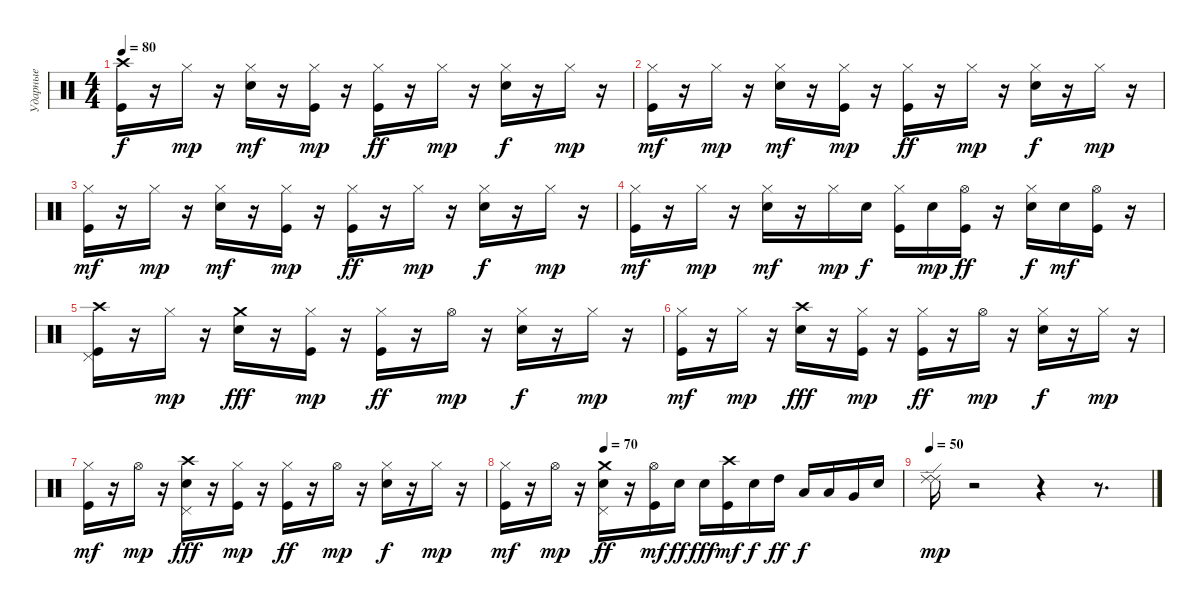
\track ("Ударные" "Ударные") {instrument percussion}
\staff {score}
\articulation defaults
\ts (4 4)
\tempo 80
\clef neutral
\ks c
("Crash high (hit)" "Kick (hit)").16{dy f} r.16 "Hi-Hat (closed)".16{dy mp} r.16 ("Electric Snare (hit)" "Hi-Hat (closed)").16{dy mf} r.16 ("Kick (hit)" "Hi-Hat (closed)").16{dy mp} r.16 ("Hi-Hat (closed)" "Kick (hit)").16{dy ff} r.16 "Hi-Hat (closed)".16{dy mp} r.16 ("Electric Snare (hit)" "Hi-Hat (closed)").16{dy f} r.16 "Hi-Hat (closed)".16{dy mp} r.16 |
("Hi-Hat (closed)" "Kick (hit)").16{dy mf} r.16 "Hi-Hat (closed)".16{dy mp} r.16 ("Electric Snare (hit)" "Hi-Hat (closed)").16{dy mf} r.16 ("Kick (hit)" "Hi-Hat (closed)").16{dy mp} r.16 ("Hi-Hat (closed)" "Kick (hit)").16{dy ff} r.16 "Hi-Hat (closed)".16{dy mp} r.16 ("Electric Snare (hit)" "Hi-Hat (closed)").16{dy f} r.16 "Hi-Hat (closed)".16{dy mp} r.16 |
("Hi-Hat (closed)" "Kick (hit)").16{dy mf} r.16 "Hi-Hat (closed)".16{dy mp} r.16 ("Electric Snare (hit)" "Hi-Hat (closed)").16{dy mf} r.16 ("Kick (hit)" "Hi-Hat (closed)").16{dy mp} r.16 ("Hi-Hat (closed)" "Kick (hit)").16{dy ff} r.16 "Hi-Hat (closed)".16{dy mp} r.16 ("Electric Snare (hit)" "Hi-Hat (closed)").16{dy f} r.16 "Hi-Hat (closed)".16{dy mp} r.16 |
("Hi-Hat (closed)" "Kick (hit)").16{dy mf} r.16 "Hi-Hat (closed)".16{dy mp} r.16 ("Electric Snare (hit)" "Hi-Hat (closed)").16{dy mf} r.16 "Hi-Hat (closed)".16{dy mp} "Electric Snare (hit)".16{dy f} ("Hi-Hat (closed)" "Kick (hit)").16 "Electric Snare (hit)".16{dy mp} ("Hi-Hat (open)" "Kick (hit)").16{dy ff} r.16 ("Electric Snare (hit)" "Hi-Hat (closed)").16{dy f} "Electric Snare (hit)".16{dy mf} ("Hi-Hat (open)" "Kick (hit)").16 r.16 |
("Pedal Hi-Hat (hit)" "Crash high (hit)" "Kick (hit)").16 r.16 "Hi-Hat (closed)".16{dy mp} r.16 ("Electric Snare (hit)" "Crash medium (hit)").16{dy fff} r.16 ("Kick (hit)" "Hi-Hat (closed)").16{dy mp} r.16 ("Hi-Hat (closed)" "Kick (hit)").16{dy ff} r.16 "Hi-Hat (open)".16{dy mp} r.16 ("Electric Snare (hit)" "Hi-Hat (closed)").16{dy f} r.16 "Hi-Hat (closed)".16{dy mp} r.16 |
("Hi-Hat (closed)" "Kick (hit)").16{dy mf} r.16 "Hi-Hat (closed)".16{dy mp} r.16 ("Electric Snare (hit)" "Crash high (hit)").16{dy fff} r.16 ("Kick (hit)" "Hi-Hat (closed)").16{dy mp} r.16 ("Hi-Hat (closed)" "Kick (hit)").16{dy ff} r.16 "Hi-Hat (open)".16{dy mp} r.16 ("Electric Snare (hit)" "Hi-Hat (closed)").16{dy f} r.16 "Hi-Hat (closed)".16{dy mp} r.16 |
("Hi-Hat (closed)" "Kick (hit)").16{dy mf} r.16 "Hi-Hat (open)".16{dy mp} r.16 ("Pedal Hi-Hat (hit)" "Electric Snare (hit)" "Crash high (hit)").16{dy fff} r.16 ("Kick (hit)" "Hi-Hat (closed)").16{dy mp} r.16 ("Hi-Hat (closed)" "Kick (hit)").16{dy ff} r.16 "Hi-Hat (open)".16{dy mp} r.16 ("Electric Snare (hit)" "Hi-Hat (closed)").16{dy f} r.16 "Hi-Hat (closed)".16{dy mp} r.16 |
\tempo (70 0.25)
("Hi-Hat (closed)" "Kick (hit)").16{dy mf} r.16 "Hi-Hat (open)".16{dy mp} r.16 ("Electric Snare (hit)" "Pedal Hi-Hat (hit)" "Crash medium (hit)").16{dy ff} r.16 ("Kick (hit)" "Hi-Hat (open)").16{dy mf} "Electric Snare (hit)".16{dy ff} "Electric Snare (hit)".16{dy fff} ("Kick (hit)" "Crash high (hit)").16{dy mf} "Electric Snare (hit)".16{dy f} "High Tom (hit)".16{dy ff} "Low Tom (hit)".16{dy f} "Low Tom (hit)".16 "Very Low Tom (hit)".16 "Electric Snare (hit)".16 |
\tempo 50
("Ride (edge) 2" "Ride (edge) 2").16{bd 480 dy mp} r.2 r.4 r.8{d}
